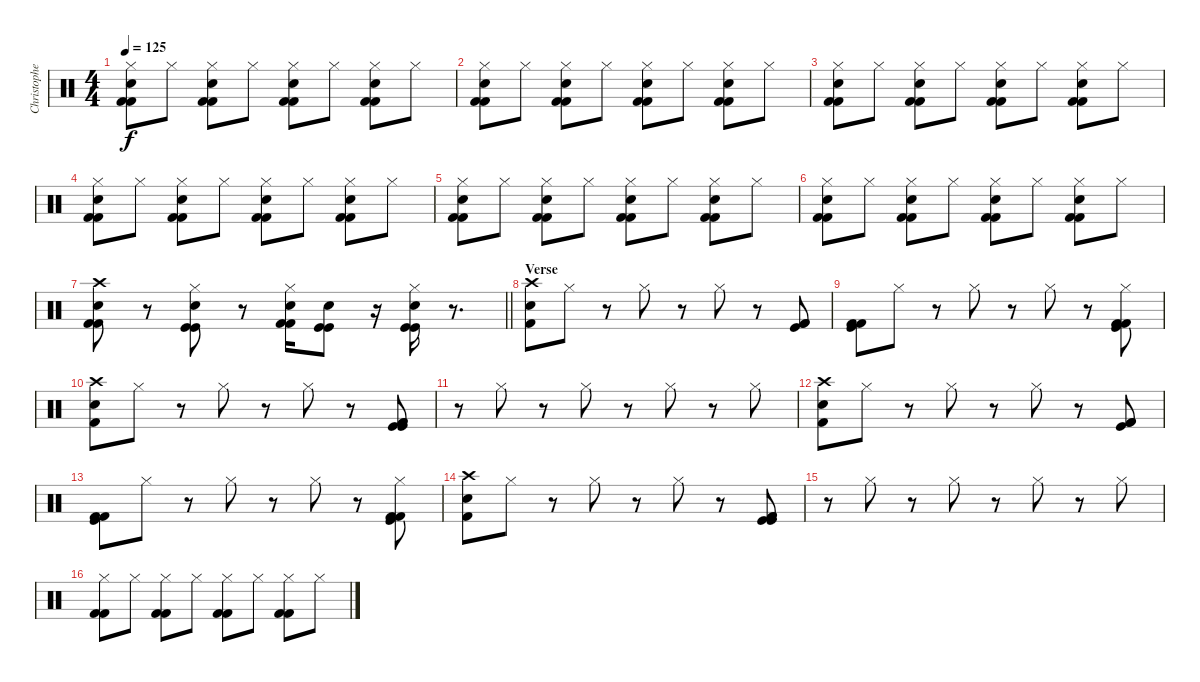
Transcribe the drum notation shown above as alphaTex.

\track ("Christopher S. (Drums)" "Christophe") {instrument percussion}
\staff {score}
\articulation defaults
\ts (4 4)
\tempo 125
\clef neutral
\ks c
("Hi-Hat (closed)" "Kick (hit) 2" "Kick (hit) 2" "Electric Snare (hit)").8{dy f} "Hi-Hat (closed)".8 ("Hi-Hat (closed)" "Kick (hit) 2" "Kick (hit) 2" "Electric Snare (hit)").8 "Hi-Hat (closed)".8 ("Hi-Hat (closed)" "Kick (hit) 2" "Kick (hit) 2" "Electric Snare (hit)").8 "Hi-Hat (closed)".8 ("Hi-Hat (closed)" "Kick (hit) 2" "Kick (hit) 2" "Electric Snare (hit)").8 "Hi-Hat (closed)".8 |
("Hi-Hat (closed)" "Kick (hit) 2" "Kick (hit) 2" "Electric Snare (hit)").8 "Hi-Hat (closed)".8 ("Hi-Hat (closed)" "Kick (hit) 2" "Kick (hit) 2" "Electric Snare (hit)").8 "Hi-Hat (closed)".8 ("Hi-Hat (closed)" "Kick (hit) 2" "Kick (hit) 2" "Electric Snare (hit)").8 "Hi-Hat (closed)".8 ("Hi-Hat (closed)" "Kick (hit) 2" "Kick (hit) 2" "Electric Snare (hit)").8 "Hi-Hat (closed)".8 |
("Hi-Hat (closed)" "Kick (hit) 2" "Kick (hit) 2" "Electric Snare (hit)").8 "Hi-Hat (closed)".8 ("Hi-Hat (closed)" "Kick (hit) 2" "Kick (hit) 2" "Electric Snare (hit)").8 "Hi-Hat (closed)".8 ("Hi-Hat (closed)" "Kick (hit) 2" "Kick (hit) 2" "Electric Snare (hit)").8 "Hi-Hat (closed)".8 ("Hi-Hat (closed)" "Kick (hit) 2" "Kick (hit) 2" "Electric Snare (hit)").8 "Hi-Hat (closed)".8 |
("Hi-Hat (closed)" "Kick (hit) 2" "Kick (hit) 2" "Electric Snare (hit)").8 "Hi-Hat (closed)".8 ("Hi-Hat (closed)" "Kick (hit) 2" "Kick (hit) 2" "Electric Snare (hit)").8 "Hi-Hat (closed)".8 ("Hi-Hat (closed)" "Kick (hit) 2" "Kick (hit) 2" "Electric Snare (hit)").8 "Hi-Hat (closed)".8 ("Hi-Hat (closed)" "Kick (hit) 2" "Kick (hit) 2" "Electric Snare (hit)").8 "Hi-Hat (closed)".8 |
("Hi-Hat (closed)" "Kick (hit) 2" "Kick (hit) 2" "Electric Snare (hit)").8 "Hi-Hat (closed)".8 ("Hi-Hat (closed)" "Kick (hit) 2" "Kick (hit) 2" "Electric Snare (hit)").8 "Hi-Hat (closed)".8 ("Hi-Hat (closed)" "Kick (hit) 2" "Kick (hit) 2" "Electric Snare (hit)").8 "Hi-Hat (closed)".8 ("Hi-Hat (closed)" "Kick (hit) 2" "Kick (hit) 2" "Electric Snare (hit)").8 "Hi-Hat (closed)".8 |
("Hi-Hat (closed)" "Kick (hit) 2" "Kick (hit) 2" "Electric Snare (hit)").8 "Hi-Hat (closed)".8 ("Hi-Hat (closed)" "Kick (hit) 2" "Kick (hit) 2" "Electric Snare (hit)").8 "Hi-Hat (closed)".8 ("Hi-Hat (closed)" "Kick (hit) 2" "Kick (hit) 2" "Electric Snare (hit)").8 "Hi-Hat (closed)".8 ("Hi-Hat (closed)" "Kick (hit) 2" "Kick (hit) 2" "Electric Snare (hit)").8 "Hi-Hat (closed)".8 |
\barLineRight lightlight
("Crash high (hit)" "Kick (hit) 2" "Kick (hit) 2" "Electric Snare (hit)").8 r.8 ("Hi-Hat (closed)" "Kick (hit)" "Kick (hit)" "Snare (hit) 2").8 r.8 ("Hi-Hat (closed)" "Kick (hit) 2" "Kick (hit) 2" "Electric Snare (hit)").16 ("Kick (hit)" "Kick (hit)" "Snare (hit) 2").8 r.16 ("Hi-Hat (closed)" "Kick (hit)" "Kick (hit)" "Snare (hit) 2").16 r.8{d} |
\section ("" "Verse")
("Crash high (hit)" "Electric Snare (hit)" "Kick (hit) 2").8 "Hi-Hat (closed)".8 r.8 "Hi-Hat (closed)".8 r.8 "Hi-Hat (closed)".8 r.8 ("Kick (hit)" "Kick (hit) 2" "Kick (hit) 2").8 |
("Kick (hit)" "Kick (hit) 2" "Kick (hit) 2").8 "Hi-Hat (closed)".8 r.8 "Hi-Hat (closed)".8 r.8 "Hi-Hat (closed)".8 r.8 ("Hi-Hat (closed)" "Kick (hit) 2" "Kick (hit) 2" "Kick (hit)").8 |
("Crash high (hit)" "Electric Snare (hit)" "Kick (hit) 2").8 "Hi-Hat (closed)".8 r.8 "Hi-Hat (closed)".8 r.8 "Hi-Hat (closed)".8 r.8 ("Kick (hit)" "Kick (hit) 2" "Kick (hit) 2" "Kick (hit)").8 |
r.8 "Hi-Hat (closed)".8 r.8 "Hi-Hat (closed)".8 r.8 "Hi-Hat (closed)".8 r.8 "Hi-Hat (closed)".8 |
("Crash high (hit)" "Electric Snare (hit)" "Kick (hit) 2").8 "Hi-Hat (closed)".8 r.8 "Hi-Hat (closed)".8 r.8 "Hi-Hat (closed)".8 r.8 ("Kick (hit)" "Kick (hit) 2" "Kick (hit) 2").8 |
("Kick (hit)" "Kick (hit) 2" "Kick (hit) 2").8 "Hi-Hat (closed)".8 r.8 "Hi-Hat (closed)".8 r.8 "Hi-Hat (closed)".8 r.8 ("Hi-Hat (closed)" "Kick (hit) 2" "Kick (hit) 2" "Kick (hit)").8 |
("Crash high (hit)" "Electric Snare (hit)" "Kick (hit) 2").8 "Hi-Hat (closed)".8 r.8 "Hi-Hat (closed)".8 r.8 "Hi-Hat (closed)".8 r.8 ("Kick (hit)" "Kick (hit) 2" "Kick (hit) 2" "Kick (hit)").8 |
r.8 "Hi-Hat (closed)".8 r.8 "Hi-Hat (closed)".8 r.8 "Hi-Hat (closed)".8 r.8 "Hi-Hat (closed)".8 |
("Hi-Hat (closed)" "Kick (hit) 2" "Kick (hit) 2").8 "Hi-Hat (closed)".8 ("Hi-Hat (closed)" "Kick (hit) 2" "Kick (hit) 2").8 "Hi-Hat (closed)".8 ("Hi-Hat (closed)" "Kick (hit) 2" "Kick (hit) 2").8 "Hi-Hat (closed)".8 ("Hi-Hat (closed)" "Kick (hit) 2" "Kick (hit) 2").8 "Hi-Hat (closed)".8
